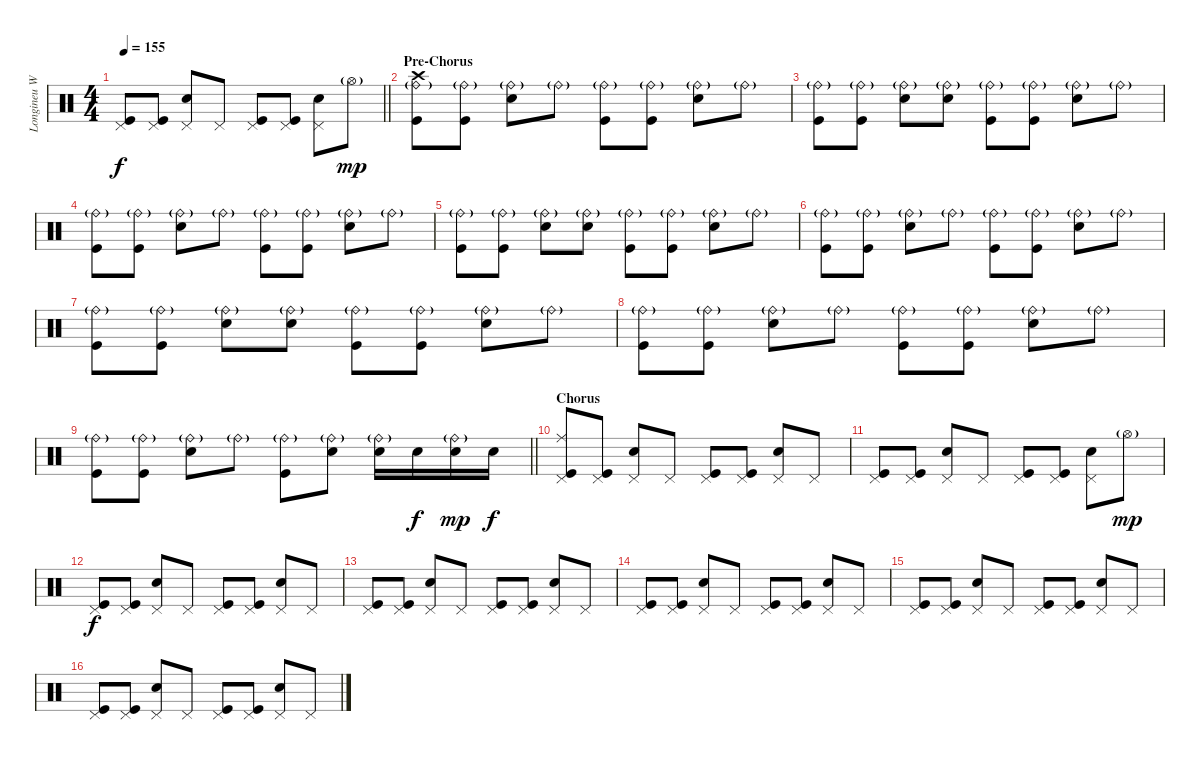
\track ("Longineu W. Parsons III - Drums" "Longineu W") {instrument percussion}
\staff {score}
\articulation defaults
\ts (4 4)
\tempo 155
\clef neutral
\barLineRight lightlight
\ks c
("Pedal Hi-Hat (hit)" "Kick (hit)").8{dy f} ("Pedal Hi-Hat (hit)" "Kick (hit)").8 ("Pedal Hi-Hat (hit)" "Snare (hit) 2").8 "Pedal Hi-Hat (hit)".8 ("Pedal Hi-Hat (hit)" "Kick (hit)").8 ("Pedal Hi-Hat (hit)" "Kick (hit)").8 ("Pedal Hi-Hat (hit)" "Snare (hit) 2").8 "Hi-Hat (open)"{g}.8{dy mp} |
\section ("" "Pre-Chorus")
("Crash high (hit)" "Ride (bell)"{g} "Kick (hit)").8 ("Ride (bell)"{g} "Kick (hit)").8 ("Ride (bell)"{g} "Snare (hit) 2").8 "Ride (bell)"{g}.8 ("Ride (bell)"{g} "Kick (hit)").8 ("Ride (bell)"{g} "Kick (hit)").8 ("Ride (bell)"{g} "Snare (hit) 2").8 "Ride (bell)"{g}.8 |
("Ride (bell)"{g} "Kick (hit)").8 ("Ride (bell)"{g} "Kick (hit)").8 ("Ride (bell)"{g} "Snare (hit) 2").8 ("Ride (bell)"{g} "Snare (hit) 2").8 ("Ride (bell)"{g} "Kick (hit)").8 ("Ride (bell)"{g} "Kick (hit)").8 ("Ride (bell)"{g} "Snare (hit) 2").8 "Ride (bell)"{g}.8 |
("Ride (bell)"{g} "Kick (hit)").8 ("Ride (bell)"{g} "Kick (hit)").8 ("Ride (bell)"{g} "Snare (hit) 2").8 "Ride (bell)"{g}.8 ("Ride (bell)"{g} "Kick (hit)").8 ("Ride (bell)"{g} "Kick (hit)").8 ("Ride (bell)"{g} "Snare (hit) 2").8 "Ride (bell)"{g}.8 |
("Ride (bell)"{g} "Kick (hit)").8 ("Ride (bell)"{g} "Kick (hit)").8 ("Ride (bell)"{g} "Snare (hit) 2").8 ("Ride (bell)"{g} "Snare (hit) 2").8 ("Ride (bell)"{g} "Kick (hit)").8 ("Ride (bell)"{g} "Kick (hit)").8 ("Ride (bell)"{g} "Snare (hit) 2").8 "Ride (bell)"{g}.8 |
("Ride (bell)"{g} "Kick (hit)").8 ("Ride (bell)"{g} "Kick (hit)").8 ("Ride (bell)"{g} "Snare (hit) 2").8 "Ride (bell)"{g}.8 ("Ride (bell)"{g} "Kick (hit)").8 ("Ride (bell)"{g} "Kick (hit)").8 ("Ride (bell)"{g} "Snare (hit) 2").8 "Ride (bell)"{g}.8 |
("Ride (bell)"{g} "Kick (hit)").8 ("Ride (bell)"{g} "Kick (hit)").8 ("Ride (bell)"{g} "Snare (hit) 2").8 ("Ride (bell)"{g} "Snare (hit) 2").8 ("Ride (bell)"{g} "Kick (hit)").8 ("Ride (bell)"{g} "Kick (hit)").8 ("Ride (bell)"{g} "Snare (hit) 2").8 "Ride (bell)"{g}.8 |
("Ride (bell)"{g} "Kick (hit)").8 ("Ride (bell)"{g} "Kick (hit)").8 ("Ride (bell)"{g} "Snare (hit) 2").8 "Ride (bell)"{g}.8 ("Ride (bell)"{g} "Kick (hit)").8 ("Ride (bell)"{g} "Kick (hit)").8 ("Ride (bell)"{g} "Snare (hit) 2").8 "Ride (bell)"{g}.8 |
\barLineRight lightlight
("Ride (bell)"{g} "Kick (hit)").8 ("Ride (bell)"{g} "Kick (hit)").8 ("Ride (bell)"{g} "Snare (hit) 2").8 "Ride (bell)"{g}.8 ("Ride (bell)"{g} "Kick (hit)").8 ("Ride (bell)"{g} "Snare (hit) 2").8 ("Ride (bell)"{g} "Snare (hit) 2").16 "Snare (hit) 2".16{dy f} ("Ride (bell)"{g} "Snare (hit) 2").16{dy mp} "Snare (hit) 2".16{dy f} |
\section ("" "Chorus")
("Pedal Hi-Hat (hit)" "Ride (middle)" "Kick (hit)").8 ("Pedal Hi-Hat (hit)" "Kick (hit)").8 ("Pedal Hi-Hat (hit)" "Snare (hit) 2").8 "Pedal Hi-Hat (hit)".8 ("Pedal Hi-Hat (hit)" "Kick (hit)").8 ("Pedal Hi-Hat (hit)" "Kick (hit)").8 ("Pedal Hi-Hat (hit)" "Snare (hit) 2").8 "Pedal Hi-Hat (hit)".8 |
("Pedal Hi-Hat (hit)" "Kick (hit)").8 ("Pedal Hi-Hat (hit)" "Kick (hit)").8 ("Pedal Hi-Hat (hit)" "Snare (hit) 2").8 "Pedal Hi-Hat (hit)".8 ("Pedal Hi-Hat (hit)" "Kick (hit)").8 ("Pedal Hi-Hat (hit)" "Kick (hit)").8 ("Pedal Hi-Hat (hit)" "Snare (hit) 2").8 "Hi-Hat (open)"{g}.8{dy mp} |
("Pedal Hi-Hat (hit)" "Kick (hit)").8{dy f} ("Pedal Hi-Hat (hit)" "Kick (hit)").8 ("Pedal Hi-Hat (hit)" "Snare (hit) 2").8 "Pedal Hi-Hat (hit)".8 ("Pedal Hi-Hat (hit)" "Kick (hit)").8 ("Pedal Hi-Hat (hit)" "Kick (hit)").8 ("Pedal Hi-Hat (hit)" "Snare (hit) 2").8 "Pedal Hi-Hat (hit)".8 |
("Pedal Hi-Hat (hit)" "Kick (hit)").8 ("Pedal Hi-Hat (hit)" "Kick (hit)").8 ("Pedal Hi-Hat (hit)" "Snare (hit) 2").8 "Pedal Hi-Hat (hit)".8 ("Pedal Hi-Hat (hit)" "Kick (hit)").8 ("Pedal Hi-Hat (hit)" "Kick (hit)").8 ("Pedal Hi-Hat (hit)" "Snare (hit) 2").8 "Pedal Hi-Hat (hit)".8 |
("Pedal Hi-Hat (hit)" "Kick (hit)").8 ("Pedal Hi-Hat (hit)" "Kick (hit)").8 ("Pedal Hi-Hat (hit)" "Snare (hit) 2").8 "Pedal Hi-Hat (hit)".8 ("Pedal Hi-Hat (hit)" "Kick (hit)").8 ("Pedal Hi-Hat (hit)" "Kick (hit)").8 ("Pedal Hi-Hat (hit)" "Snare (hit) 2").8 "Pedal Hi-Hat (hit)".8 |
("Pedal Hi-Hat (hit)" "Kick (hit)").8 ("Pedal Hi-Hat (hit)" "Kick (hit)").8 ("Pedal Hi-Hat (hit)" "Snare (hit) 2").8 "Pedal Hi-Hat (hit)".8 ("Pedal Hi-Hat (hit)" "Kick (hit)").8 ("Pedal Hi-Hat (hit)" "Kick (hit)").8 ("Pedal Hi-Hat (hit)" "Snare (hit) 2").8 "Pedal Hi-Hat (hit)".8 |
("Pedal Hi-Hat (hit)" "Kick (hit)").8 ("Pedal Hi-Hat (hit)" "Kick (hit)").8 ("Pedal Hi-Hat (hit)" "Snare (hit) 2").8 "Pedal Hi-Hat (hit)".8 ("Pedal Hi-Hat (hit)" "Kick (hit)").8 ("Pedal Hi-Hat (hit)" "Kick (hit)").8 ("Pedal Hi-Hat (hit)" "Snare (hit) 2").8 "Pedal Hi-Hat (hit)".8
